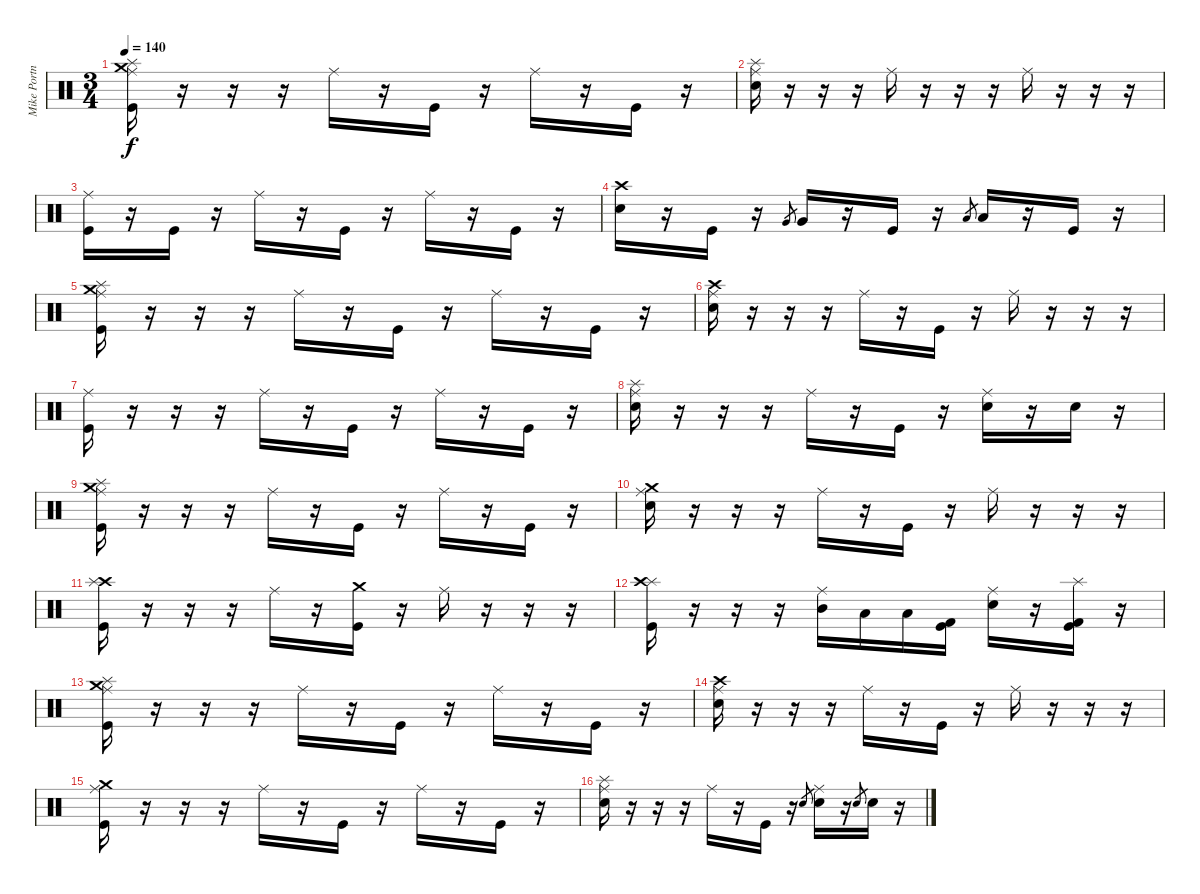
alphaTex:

\track ("Mike Portnoy" "Mike Portn") {instrument percussion}
\staff {score}
\articulation defaults
\ts (3 4)
\tempo 140
\clef neutral
\ks c
("Kick (hit)" "Crash medium (hit)" "Splash (hit)" "Ride (middle)").16{dy f} r.16 r.16 r.16 "Ride (middle)".16 r.16 "Kick (hit)".16 r.16 "Ride (middle)".16 r.16 "Kick (hit)".16 r.16 |
("Electric Snare (hit)" "Splash (hit)" "Ride (middle)").16 r.16 r.16 r.16 "Ride (middle)".16 r.16 r.16 r.16 "Ride (middle)".16 r.16 r.16 r.16 |
("Kick (hit)" "Ride (middle)").16 r.16 "Kick (hit)".16 r.16 "Ride (middle)".16 r.16 "Kick (hit)".16 r.16 "Ride (middle)".16 r.16 "Kick (hit)".16 r.16 |
("Electric Snare (hit)" "Crash high (hit)").16 r.16 "Kick (hit)".16 r.16 "Very Low Tom (hit)".8{gr} "Very Low Tom (hit)".16 r.16 "Kick (hit)".16 r.16 "Low Floor Tom (hit)".8{gr} "Low Floor Tom (hit)".16 r.16 "Kick (hit)".16 r.16 |
("Kick (hit)" "Crash medium (hit)" "Splash (hit)" "Ride (middle)").16 r.16 r.16 r.16 "Ride (middle)".16 r.16 "Kick (hit)".16 r.16 "Ride (middle)".16 r.16 "Kick (hit)".16 r.16 |
("Electric Snare (hit)" "Crash high (hit)" "Ride (middle)").16 r.16 r.16 r.16 "Ride (middle)".16 r.16 "Kick (hit)".16 r.16 "Ride (middle)".16 r.16 r.16 r.16 |
("Kick (hit)" "Ride (middle)").16 r.16 r.16 r.16 "Ride (middle)".16 r.16 "Kick (hit)".16 r.16 "Ride (middle)".16 r.16 "Kick (hit)".16 r.16 |
("Electric Snare (hit)" "Splash (hit)" "Ride (middle)").16 r.16 r.16 r.16 "Ride (middle)".16 r.16 "Kick (hit)".16 r.16 ("Electric Snare (hit)" "Ride (middle)").16 r.16 "Electric Snare (hit)".16 r.16 |
("Kick (hit)" "Crash medium (hit)" "Splash (hit)" "Ride (middle)").16 r.16 r.16 r.16 "Ride (middle)".16 r.16 "Kick (hit)".16 r.16 "Ride (middle)".16 r.16 "Kick (hit)".16 r.16 |
("Electric Snare (hit)" "Crash medium (hit)" "Ride (middle)").16 r.16 r.16 r.16 "Ride (middle)".16 r.16 "Kick (hit)".16 r.16 "Ride (middle)".16 r.16 r.16 r.16 |
("Kick (hit)" "Crash high (hit)" "Splash (hit)").16 r.16 r.16 r.16 "Ride (middle)".16 r.16 ("Crash medium (hit)" "Kick (hit)").16 r.16 "Ride (middle)".16 r.16 r.16 r.16 |
("Splash (hit)" "Crash high (hit)" "Kick (hit)").16 r.16 r.16 r.16 ("Mid Tom (hit)" "Ride (middle)").16 "Low Tom (hit)".16 "Low Floor Tom (hit)".16 ("Kick (hit) 2" "Kick (hit)").16 ("Electric Snare (hit)" "Ride (middle)").16 r.16 ("Kick (hit)" "Kick (hit) 2" "Splash (hit)").16 r.16 |
("Kick (hit)" "Crash medium (hit)" "Splash (hit)" "Ride (middle)").16 r.16 r.16 r.16 "Ride (middle)".16 r.16 "Kick (hit)".16 r.16 "Ride (middle)".16 r.16 "Kick (hit)".16 r.16 |
("Electric Snare (hit)" "Crash high (hit)" "Ride (middle)").16 r.16 r.16 r.16 "Ride (middle)".16 r.16 "Kick (hit)".16 r.16 "Ride (middle)".16 r.16 r.16 r.16 |
("Kick (hit)" "Crash medium (hit)" "Ride (middle)").16 r.16 r.16 r.16 "Ride (middle)".16 r.16 "Kick (hit)".16 r.16 "Ride (middle)".16 r.16 "Kick (hit)".16 r.16 |
("Electric Snare (hit)" "Splash (hit)" "Ride (middle)").16 r.16 r.16 r.16 "Ride (middle)".16 r.16 "Kick (hit)".16 r.16 "Electric Snare (hit)".8{gr} ("Electric Snare (hit)" "Ride (middle)").16 r.16 "Electric Snare (hit)".8{gr} "Electric Snare (hit)".16 r.16
